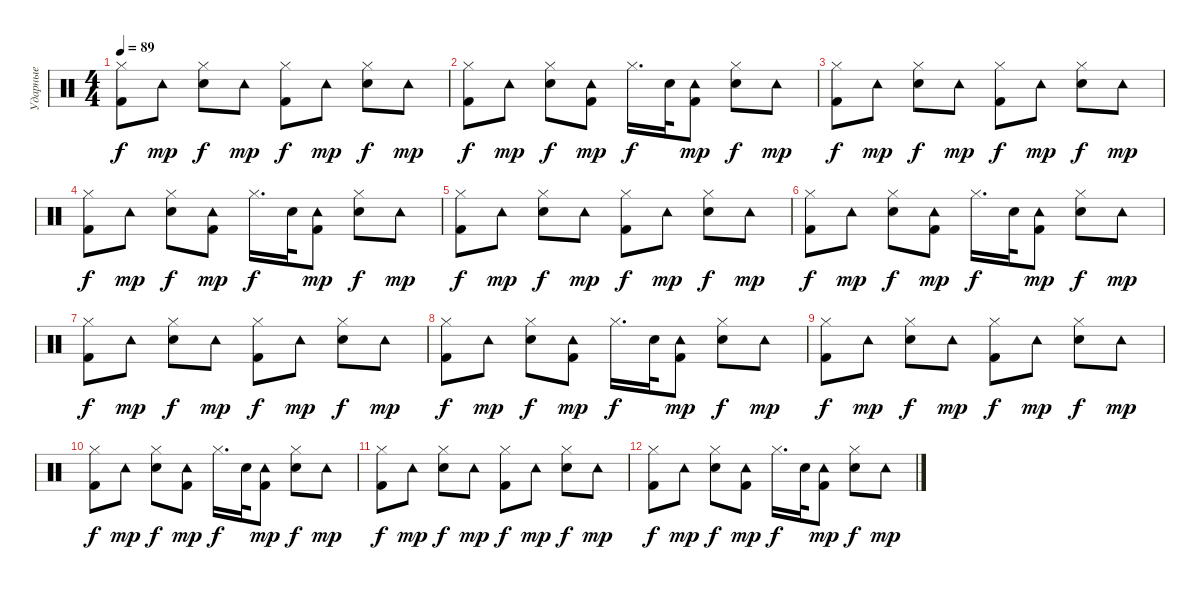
\track ("Ударные" "Ударные") {instrument percussion}
\staff {score}
\articulation defaults
\ts (4 4)
\tempo 89
\clef neutral
\ks c
("Kick (hit) 2" "Hi-Hat (closed)").8{dy f} "Tambourine (hit)".8{dy mp} ("Electric Snare (hit)" "Hi-Hat (closed)").8{dy f} "Tambourine (hit)".8{dy mp} ("Kick (hit) 2" "Hi-Hat (closed)").8{dy f} "Tambourine (hit)".8{dy mp} ("Electric Snare (hit)" "Hi-Hat (closed)").8{dy f} "Tambourine (hit)".8{dy mp} |
("Kick (hit) 2" "Hi-Hat (closed)").8{dy f} "Tambourine (hit)".8{dy mp} ("Electric Snare (hit)" "Hi-Hat (closed)").8{dy f} ("Kick (hit) 2" "Tambourine (hit)").8{dy mp} "Hi-Hat (closed)".16{d dy f} "Electric Snare (hit)".32 ("Kick (hit) 2" "Tambourine (hit)").8{dy mp} ("Electric Snare (hit)" "Hi-Hat (closed)").8{dy f} "Tambourine (hit)".8{dy mp} |
("Kick (hit) 2" "Hi-Hat (closed)").8{dy f} "Tambourine (hit)".8{dy mp} ("Electric Snare (hit)" "Hi-Hat (closed)").8{dy f} "Tambourine (hit)".8{dy mp} ("Kick (hit) 2" "Hi-Hat (closed)").8{dy f} "Tambourine (hit)".8{dy mp} ("Electric Snare (hit)" "Hi-Hat (closed)").8{dy f} "Tambourine (hit)".8{dy mp} |
("Kick (hit) 2" "Hi-Hat (closed)").8{dy f} "Tambourine (hit)".8{dy mp} ("Electric Snare (hit)" "Hi-Hat (closed)").8{dy f} ("Kick (hit) 2" "Tambourine (hit)").8{dy mp} "Hi-Hat (closed)".16{d dy f} "Electric Snare (hit)".32 ("Kick (hit) 2" "Tambourine (hit)").8{dy mp} ("Electric Snare (hit)" "Hi-Hat (closed)").8{dy f} "Tambourine (hit)".8{dy mp} |
("Kick (hit) 2" "Hi-Hat (closed)").8{dy f} "Tambourine (hit)".8{dy mp} ("Electric Snare (hit)" "Hi-Hat (closed)").8{dy f} "Tambourine (hit)".8{dy mp} ("Kick (hit) 2" "Hi-Hat (closed)").8{dy f} "Tambourine (hit)".8{dy mp} ("Electric Snare (hit)" "Hi-Hat (closed)").8{dy f} "Tambourine (hit)".8{dy mp} |
("Kick (hit) 2" "Hi-Hat (closed)").8{dy f} "Tambourine (hit)".8{dy mp} ("Electric Snare (hit)" "Hi-Hat (closed)").8{dy f} ("Kick (hit) 2" "Tambourine (hit)").8{dy mp} "Hi-Hat (closed)".16{d dy f} "Electric Snare (hit)".32 ("Kick (hit) 2" "Tambourine (hit)").8{dy mp} ("Electric Snare (hit)" "Hi-Hat (closed)").8{dy f} "Tambourine (hit)".8{dy mp} |
("Kick (hit) 2" "Hi-Hat (closed)").8{dy f} "Tambourine (hit)".8{dy mp} ("Electric Snare (hit)" "Hi-Hat (closed)").8{dy f} "Tambourine (hit)".8{dy mp} ("Kick (hit) 2" "Hi-Hat (closed)").8{dy f} "Tambourine (hit)".8{dy mp} ("Electric Snare (hit)" "Hi-Hat (closed)").8{dy f} "Tambourine (hit)".8{dy mp} |
("Kick (hit) 2" "Hi-Hat (closed)").8{dy f volume 12} "Tambourine (hit)".8{dy mp volume 12} ("Electric Snare (hit)" "Hi-Hat (closed)").8{dy f volume 12} ("Kick (hit) 2" "Tambourine (hit)").8{dy mp volume 12} "Hi-Hat (closed)".16{d dy f volume 11} "Electric Snare (hit)".32{volume 11} ("Kick (hit) 2" "Tambourine (hit)").8{dy mp volume 11} ("Electric Snare (hit)" "Hi-Hat (closed)").8{dy f volume 11} "Tambourine (hit)".8{dy mp volume 11} |
("Kick (hit) 2" "Hi-Hat (closed)").8{dy f volume 10} "Tambourine (hit)".8{dy mp volume 10} ("Electric Snare (hit)" "Hi-Hat (closed)").8{dy f volume 10} "Tambourine (hit)".8{dy mp volume 10} ("Kick (hit) 2" "Hi-Hat (closed)").8{dy f volume 9} "Tambourine (hit)".8{dy mp volume 9} ("Electric Snare (hit)" "Hi-Hat (closed)").8{dy f volume 9} "Tambourine (hit)".8{dy mp volume 9} |
("Kick (hit) 2" "Hi-Hat (closed)").8{dy f volume 8} "Tambourine (hit)".8{dy mp volume 8} ("Electric Snare (hit)" "Hi-Hat (closed)").8{dy f volume 8} ("Kick (hit) 2" "Tambourine (hit)").8{dy mp volume 8} "Hi-Hat (closed)".16{d dy f volume 7} "Electric Snare (hit)".32{volume 7} ("Kick (hit) 2" "Tambourine (hit)").8{dy mp} ("Electric Snare (hit)" "Hi-Hat (closed)").8{dy f volume 7} "Tambourine (hit)".8{dy mp volume 7} |
("Kick (hit) 2" "Hi-Hat (closed)").8{dy f volume 6} "Tambourine (hit)".8{dy mp volume 6} ("Electric Snare (hit)" "Hi-Hat (closed)").8{dy f volume 6} "Tambourine (hit)".8{dy mp volume 6} ("Kick (hit) 2" "Hi-Hat (closed)").8{dy f volume 5} "Tambourine (hit)".8{dy mp volume 5} ("Electric Snare (hit)" "Hi-Hat (closed)").8{dy f volume 5} "Tambourine (hit)".8{dy mp volume 4} |
("Kick (hit) 2" "Hi-Hat (closed)").8{dy f volume 4} "Tambourine (hit)".8{dy mp volume 4} ("Electric Snare (hit)" "Hi-Hat (closed)").8{dy f volume 4} ("Kick (hit) 2" "Tambourine (hit)").8{dy mp volume 4} "Hi-Hat (closed)".16{d dy f volume 3} "Electric Snare (hit)".32{volume 3} ("Kick (hit) 2" "Tambourine (hit)").8{dy mp volume 3} ("Electric Snare (hit)" "Hi-Hat (closed)").8{dy f volume 3} "Tambourine (hit)".8{dy mp volume 2}
